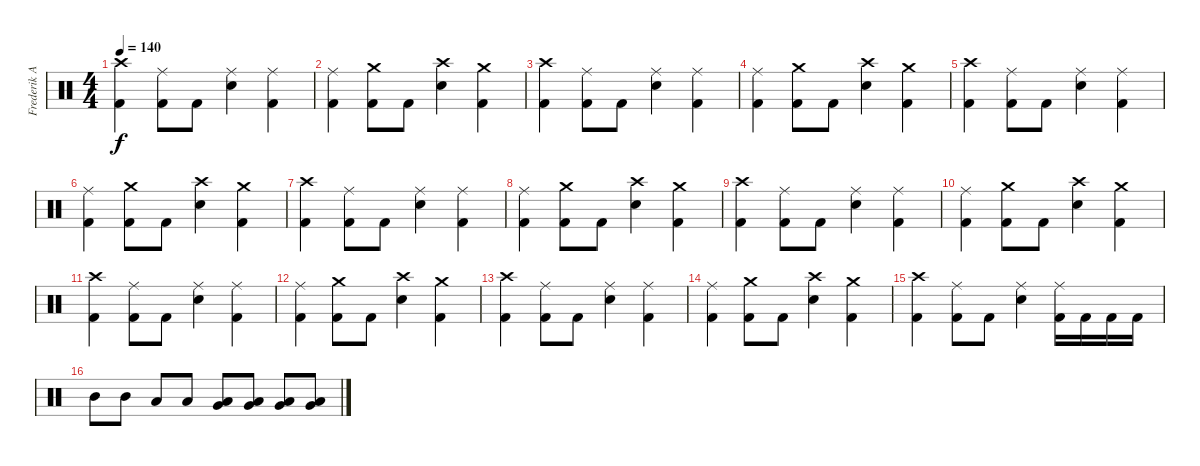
\track ("Frederik Anderson" "Frederik A") {instrument percussion}
\staff {score}
\articulation defaults
\ts (4 4)
\tempo 140
\clef neutral
\ks c
("Crash high (hit)" "Kick (hit) 2").4{dy f} ("Ride (middle)" "Kick (hit) 2").8 "Kick (hit) 2".8 ("Ride (middle)" "Electric Snare (hit)").4 ("Ride (middle)" "Kick (hit) 2").4 |
("Ride (middle)" "Kick (hit) 2").4 ("Crash medium (hit)" "Kick (hit) 2").8 "Kick (hit) 2".8 ("Crash high (hit)" "Electric Snare (hit)").4 ("Crash medium (hit)" "Kick (hit) 2").4 |
("Crash high (hit)" "Kick (hit) 2").4 ("Ride (middle)" "Kick (hit) 2").8 "Kick (hit) 2".8 ("Ride (middle)" "Electric Snare (hit)").4 ("Ride (middle)" "Kick (hit) 2").4 |
("Ride (middle)" "Kick (hit) 2").4 ("Crash medium (hit)" "Kick (hit) 2").8 "Kick (hit) 2".8 ("Crash high (hit)" "Electric Snare (hit)").4 ("Crash medium (hit)" "Kick (hit) 2").4 |
("Crash high (hit)" "Kick (hit) 2").4 ("Ride (middle)" "Kick (hit) 2").8 "Kick (hit) 2".8 ("Ride (middle)" "Electric Snare (hit)").4 ("Ride (middle)" "Kick (hit) 2").4 |
("Ride (middle)" "Kick (hit) 2").4 ("Crash medium (hit)" "Kick (hit) 2").8 "Kick (hit) 2".8 ("Crash high (hit)" "Electric Snare (hit)").4 ("Crash medium (hit)" "Kick (hit) 2").4 |
("Crash high (hit)" "Kick (hit) 2").4 ("Ride (middle)" "Kick (hit) 2").8 "Kick (hit) 2".8 ("Ride (middle)" "Electric Snare (hit)").4 ("Ride (middle)" "Kick (hit) 2").4 |
("Ride (middle)" "Kick (hit) 2").4 ("Crash medium (hit)" "Kick (hit) 2").8 "Kick (hit) 2".8 ("Crash high (hit)" "Electric Snare (hit)").4 ("Crash medium (hit)" "Kick (hit) 2").4 |
("Crash high (hit)" "Kick (hit) 2").4 ("Ride (middle)" "Kick (hit) 2").8 "Kick (hit) 2".8 ("Ride (middle)" "Electric Snare (hit)").4 ("Ride (middle)" "Kick (hit) 2").4 |
("Ride (middle)" "Kick (hit) 2").4 ("Crash medium (hit)" "Kick (hit) 2").8 "Kick (hit) 2".8 ("Crash high (hit)" "Electric Snare (hit)").4 ("Crash medium (hit)" "Kick (hit) 2").4 |
("Crash high (hit)" "Kick (hit) 2").4 ("Ride (middle)" "Kick (hit) 2").8 "Kick (hit) 2".8 ("Ride (middle)" "Electric Snare (hit)").4 ("Ride (middle)" "Kick (hit) 2").4 |
("Ride (middle)" "Kick (hit) 2").4 ("Crash medium (hit)" "Kick (hit) 2").8 "Kick (hit) 2".8 ("Crash high (hit)" "Electric Snare (hit)").4 ("Crash medium (hit)" "Kick (hit) 2").4 |
("Crash high (hit)" "Kick (hit) 2").4 ("Ride (middle)" "Kick (hit) 2").8 "Kick (hit) 2".8 ("Ride (middle)" "Electric Snare (hit)").4 ("Ride (middle)" "Kick (hit) 2").4 |
("Ride (middle)" "Kick (hit) 2").4 ("Crash medium (hit)" "Kick (hit) 2").8 "Kick (hit) 2".8 ("Crash high (hit)" "Electric Snare (hit)").4 ("Crash medium (hit)" "Kick (hit) 2").4 |
("Crash high (hit)" "Kick (hit) 2").4 ("Ride (middle)" "Kick (hit) 2").8 "Kick (hit) 2".8 ("Ride (middle)" "Electric Snare (hit)").4 ("Ride (middle)" "Kick (hit) 2").16 "Kick (hit) 2".16 "Kick (hit) 2".16 "Kick (hit) 2".16 |
"Mid Tom (hit)".8 "Mid Tom (hit)".8 "Low Tom (hit)".8 "Low Tom (hit)".8 ("Low Tom (hit)" "Very Low Tom (hit)").8 ("Low Tom (hit)" "Very Low Tom (hit)").8 ("Very Low Tom (hit)" "Low Floor Tom (hit)").8 ("Very Low Tom (hit)" "Low Floor Tom (hit)").8
